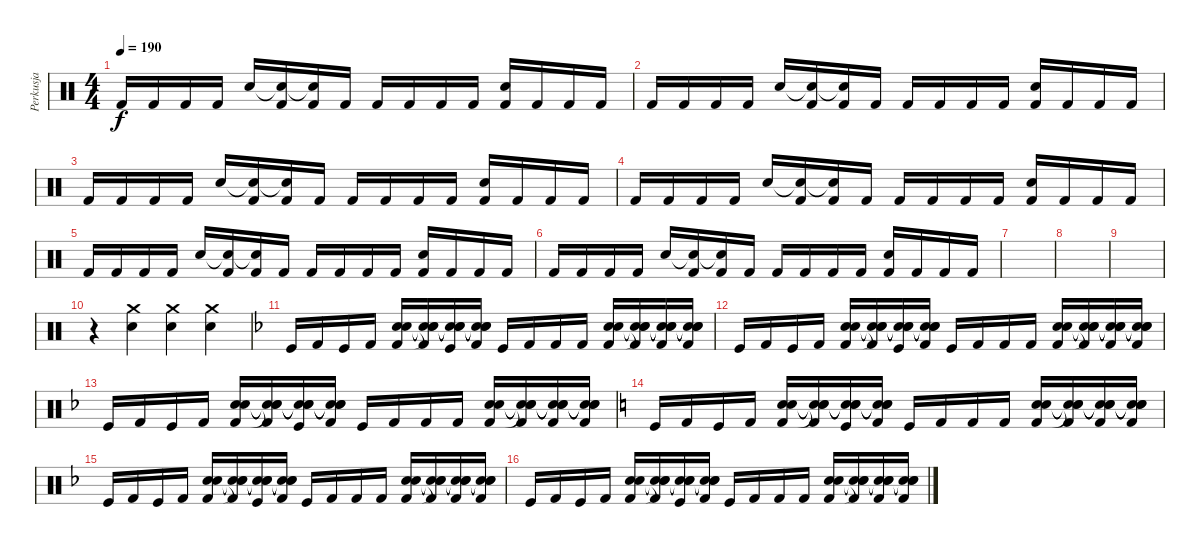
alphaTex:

\track ("Perkusja" "Perkusja") {instrument percussion}
\staff {score}
\articulation defaults
\ts (4 4)
\tempo 190
\clef neutral
\ks c "Kick (hit) 2".16{dy f} "Kick (hit) 2".16 "Kick (hit) 2".16 "Kick (hit) 2".16 "Electric Snare (hit)".16
("Snare (hit)"{t} "Kick (hit) 2").16 ("Snare (hit)"{t} "Kick (hit) 2").16 "Kick (hit) 2".16 "Kick (hit) 2".16 "Kick (hit) 2".16 "Kick (hit) 2".16 "Kick (hit) 2".16 ("Electric Snare (hit)" "Kick (hit) 2").16 "Kick (hit) 2".16 "Kick (hit) 2".16 "Kick (hit) 2".16 |
"Kick (hit) 2".16 "Kick (hit) 2".16 "Kick (hit) 2".16 "Kick (hit) 2".16 "Electric Snare (hit)".16 ("Snare (hit)"{t} "Kick (hit) 2").16 ("Snare (hit)"{t} "Kick (hit) 2").16 "Kick (hit) 2".16 "Kick (hit) 2".16 "Kick (hit) 2".16 "Kick (hit) 2".16 "Kick (hit) 2".16 ("Electric Snare (hit)" "Kick (hit) 2").16 "Kick (hit) 2".16 "Kick (hit) 2".16 "Kick (hit) 2".16 |
"Kick (hit) 2".16 "Kick (hit) 2".16 "Kick (hit) 2".16 "Kick (hit) 2".16 "Electric Snare (hit)".16 ("Snare (hit)"{t} "Kick (hit) 2").16 ("Snare (hit)"{t} "Kick (hit) 2").16 "Kick (hit) 2".16 "Kick (hit) 2".16 "Kick (hit) 2".16 "Kick (hit) 2".16 "Kick (hit) 2".16 ("Electric Snare (hit)" "Kick (hit) 2").16 "Kick (hit) 2".16 "Kick (hit) 2".16 "Kick (hit) 2".16 |
"Kick (hit) 2".16 "Kick (hit) 2".16 "Kick (hit) 2".16 "Kick (hit) 2".16 "Electric Snare (hit)".16 ("Snare (hit)"{t} "Kick (hit) 2").16 ("Snare (hit)"{t} "Kick (hit) 2").16 "Kick (hit) 2".16 "Kick (hit) 2".16 "Kick (hit) 2".16 "Kick (hit) 2".16 "Kick (hit) 2".16 ("Electric Snare (hit)" "Kick (hit) 2").16 "Kick (hit) 2".16 "Kick (hit) 2".16 "Kick (hit) 2".16 |
"Kick (hit) 2".16 "Kick (hit) 2".16 "Kick (hit) 2".16 "Kick (hit) 2".16 "Electric Snare (hit)".16 ("Snare (hit)"{t} "Kick (hit) 2").16 ("Snare (hit)"{t} "Kick (hit) 2").16 "Kick (hit) 2".16 "Kick (hit) 2".16 "Kick (hit) 2".16 "Kick (hit) 2".16 "Kick (hit) 2".16 ("Electric Snare (hit)" "Kick (hit) 2").16 "Kick (hit) 2".16 "Kick (hit) 2".16 "Kick (hit) 2".16 |
"Kick (hit) 2".16 "Kick (hit) 2".16 "Kick (hit) 2".16 "Kick (hit) 2".16 "Electric Snare (hit)".16 ("Snare (hit)"{t} "Kick (hit) 2").16 ("Snare (hit)"{t} "Kick (hit) 2").16 "Kick (hit) 2".16 "Kick (hit) 2".16 "Kick (hit) 2".16 "Kick (hit) 2".16 "Kick (hit) 2".16 ("Electric Snare (hit)" "Kick (hit) 2").16 "Kick (hit) 2".16 "Kick (hit) 2".16 "Kick (hit) 2".16 |
|
|
|
r.4 ("Crash medium (hit)" "Electric Snare (hit)").4 ("Crash medium (hit)" "Electric Snare (hit)").4 ("Crash medium (hit)" "Electric Snare (hit)").4 |
\ks dminor "Kick (hit)".16 "Kick (hit) 2".16 "Kick (hit)".16 "Kick (hit) 2".16
("Electric Snare (hit)" "Snare (hit) 2" "Kick (hit) 2").16 ("Snare (hit)"{t} "Snare (hit)"{t} "Snare (hit)"{t} "Kick (hit) 2").16 ("Snare (hit)"{t} "Snare (hit)"{t} "Snare (hit)"{t} "Kick (hit)").16 ("Snare (hit)"{t} "Snare (hit)"{t} "Snare (hit)"{t} "Kick (hit) 2").16 "Kick (hit)".16 "Kick (hit) 2".16 "Kick (hit) 2".16 "Kick (hit) 2".16 ("Electric Snare (hit)" "Snare (hit) 2" "Kick (hit) 2").16 ("Snare (hit)"{t} "Snare (hit)"{t} "Snare (hit)"{t} "Kick (hit) 2").16 ("Snare (hit)"{t} "Snare (hit)"{t} "Snare (hit)"{t} "Kick (hit) 2").16 ("Snare (hit)"{t} "Snare (hit)"{t} "Snare (hit)"{t} "Kick (hit) 2").16 |
"Kick (hit)".16 "Kick (hit) 2".16 "Kick (hit)".16 "Kick (hit) 2".16 ("Electric Snare (hit)" "Snare (hit) 2" "Kick (hit) 2").16 ("Snare (hit)"{t} "Snare (hit)"{t} "Snare (hit)"{t} "Kick (hit) 2").16 ("Snare (hit)"{t} "Snare (hit)"{t} "Snare (hit)"{t} "Kick (hit)").16 ("Snare (hit)"{t} "Snare (hit)"{t} "Snare (hit)"{t} "Kick (hit) 2").16 "Kick (hit)".16 "Kick (hit) 2".16 "Kick (hit) 2".16 "Kick (hit) 2".16 ("Electric Snare (hit)" "Snare (hit) 2" "Kick (hit) 2").16 ("Snare (hit)"{t} "Snare (hit)"{t} "Snare (hit)"{t} "Kick (hit) 2").16 ("Snare (hit)"{t} "Snare (hit)"{t} "Snare (hit)"{t} "Kick (hit) 2").16 ("Snare (hit)"{t} "Snare (hit)"{t} "Snare (hit)"{t} "Kick (hit) 2").16 |
"Kick (hit)".16 "Kick (hit) 2".16 "Kick (hit)".16 "Kick (hit) 2".16 ("Electric Snare (hit)" "Snare (hit) 2" "Kick (hit) 2").16 ("Snare (hit)"{t} "Snare (hit)"{t} "Snare (hit)"{t} "Kick (hit) 2").16 ("Snare (hit)"{t} "Snare (hit)"{t} "Snare (hit)"{t} "Kick (hit)").16 ("Snare (hit)"{t} "Snare (hit)"{t} "Snare (hit)"{t} "Kick (hit) 2").16 "Kick (hit)".16 "Kick (hit) 2".16 "Kick (hit) 2".16 "Kick (hit) 2".16 ("Electric Snare (hit)" "Snare (hit) 2" "Kick (hit) 2").16 ("Snare (hit)"{t} "Snare (hit)"{t} "Snare (hit)"{t} "Kick (hit) 2").16 ("Snare (hit)"{t} "Snare (hit)"{t} "Snare (hit)"{t} "Kick (hit) 2").16 ("Snare (hit)"{t} "Snare (hit)"{t} "Snare (hit)"{t} "Kick (hit) 2").16 |
\ks c "Kick (hit)".16 "Kick (hit) 2".16 "Kick (hit)".16 "Kick (hit) 2".16
("Electric Snare (hit)" "Snare (hit) 2" "Kick (hit) 2").16 ("Snare (hit)"{t} "Snare (hit)"{t} "Snare (hit)"{t} "Kick (hit) 2").16 ("Snare (hit)"{t} "Snare (hit)"{t} "Snare (hit)"{t} "Kick (hit)").16 ("Snare (hit)"{t} "Snare (hit)"{t} "Snare (hit)"{t} "Kick (hit) 2").16 "Kick (hit)".16 "Kick (hit) 2".16 "Kick (hit) 2".16 "Kick (hit) 2".16 ("Electric Snare (hit)" "Snare (hit) 2" "Kick (hit) 2").16 ("Snare (hit)"{t} "Snare (hit)"{t} "Snare (hit)"{t} "Kick (hit) 2").16 ("Snare (hit)"{t} "Snare (hit)"{t} "Snare (hit)"{t} "Kick (hit) 2").16 ("Snare (hit)"{t} "Snare (hit)"{t} "Snare (hit)"{t} "Kick (hit) 2").16 |
\ks dminor "Kick (hit)".16 "Kick (hit) 2".16 "Kick (hit)".16 "Kick (hit) 2".16
("Electric Snare (hit)" "Snare (hit) 2" "Kick (hit) 2").16 ("Snare (hit)"{t} "Snare (hit)"{t} "Snare (hit)"{t} "Kick (hit) 2").16 ("Snare (hit)"{t} "Snare (hit)"{t} "Snare (hit)"{t} "Kick (hit)").16 ("Snare (hit)"{t} "Snare (hit)"{t} "Snare (hit)"{t} "Kick (hit) 2").16 "Kick (hit)".16 "Kick (hit) 2".16 "Kick (hit) 2".16 "Kick (hit) 2".16 ("Electric Snare (hit)" "Snare (hit) 2" "Kick (hit) 2").16 ("Snare (hit)"{t} "Snare (hit)"{t} "Snare (hit)"{t} "Kick (hit) 2").16 ("Snare (hit)"{t} "Snare (hit)"{t} "Snare (hit)"{t} "Kick (hit) 2").16 ("Snare (hit)"{t} "Snare (hit)"{t} "Snare (hit)"{t} "Kick (hit) 2").16 |
"Kick (hit)".16 "Kick (hit) 2".16 "Kick (hit)".16 "Kick (hit) 2".16 ("Electric Snare (hit)" "Snare (hit) 2" "Kick (hit) 2").16 ("Snare (hit)"{t} "Snare (hit)"{t} "Snare (hit)"{t} "Kick (hit) 2").16 ("Snare (hit)"{t} "Snare (hit)"{t} "Snare (hit)"{t} "Kick (hit)").16 ("Snare (hit)"{t} "Snare (hit)"{t} "Snare (hit)"{t} "Kick (hit) 2").16 "Kick (hit)".16 "Kick (hit) 2".16 "Kick (hit) 2".16 "Kick (hit) 2".16 ("Electric Snare (hit)" "Snare (hit) 2" "Kick (hit) 2").16 ("Snare (hit)"{t} "Snare (hit)"{t} "Snare (hit)"{t} "Kick (hit) 2").16 ("Snare (hit)"{t} "Snare (hit)"{t} "Snare (hit)"{t} "Kick (hit) 2").16 ("Snare (hit)"{t} "Snare (hit)"{t} "Snare (hit)"{t} "Kick (hit) 2").16
